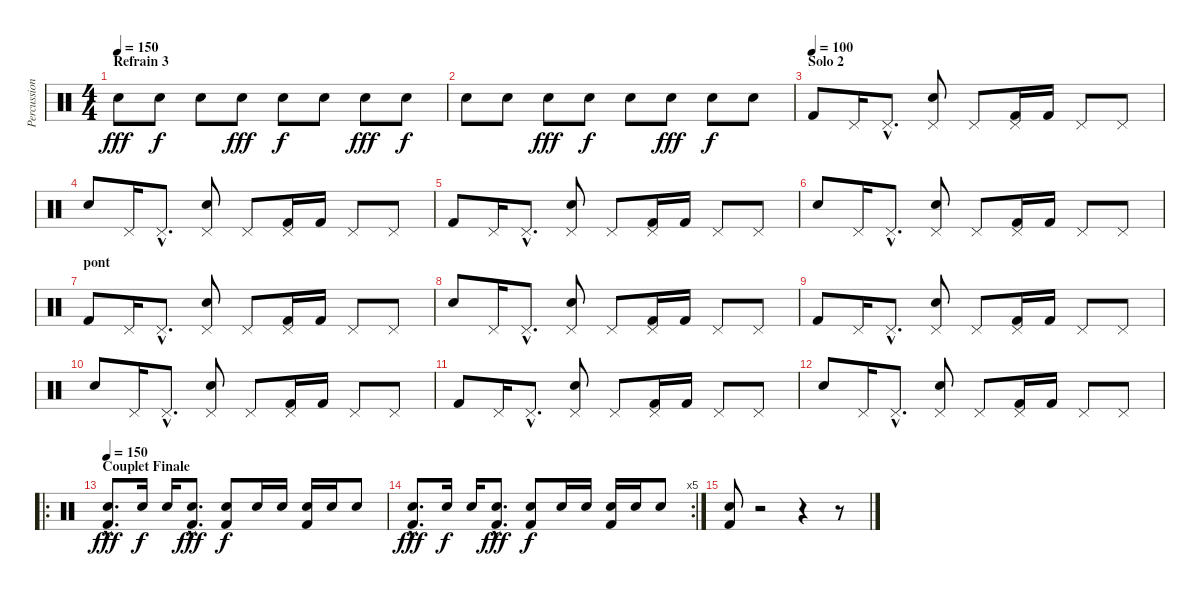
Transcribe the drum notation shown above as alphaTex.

\track ("Percussions" "Percussion") {instrument percussion}
\staff {score}
\articulation defaults
\ts (4 4)
\section ("" "Refrain 3")
\tempo 150
\clef neutral
\ks c "Electric Snare (hit)".8{dy fff} "Electric Snare (hit)".8{dy f} "Electric Snare (hit)".8 "Electric Snare (hit)".8{dy fff} "Electric Snare (hit)".8{dy f} "Electric Snare (hit)".8 "Electric Snare (hit)".8{dy fff} "Electric Snare (hit)".8{dy f}
|
"Electric Snare (hit)".8 "Electric Snare (hit)".8 "Electric Snare (hit)".8{dy fff} "Electric Snare (hit)".8{dy f} "Electric Snare (hit)".8 "Electric Snare (hit)".8{dy fff} "Electric Snare (hit)".8{dy f} "Electric Snare (hit)".8 |
\section ("" "Solo 2")
\tempo (100)
"Kick (hit) 2".8 "Pedal Hi-Hat (hit)".16 "Pedal Hi-Hat (hit)"{hac}.8{d} ("Pedal Hi-Hat (hit)" "Electric Snare (hit)").8 "Pedal Hi-Hat (hit)".8 ("Pedal Hi-Hat (hit)" "Kick (hit) 2").16 "Kick (hit) 2".16 "Pedal Hi-Hat (hit)".8 "Pedal Hi-Hat (hit)".8 |
"Electric Snare (hit)".8 "Pedal Hi-Hat (hit)".16 "Pedal Hi-Hat (hit)"{hac}.8{d} ("Pedal Hi-Hat (hit)" "Electric Snare (hit)").8 "Pedal Hi-Hat (hit)".8 ("Pedal Hi-Hat (hit)" "Kick (hit) 2").16 "Kick (hit) 2".16 "Pedal Hi-Hat (hit)".8 "Pedal Hi-Hat (hit)".8 |
"Kick (hit) 2".8 "Pedal Hi-Hat (hit)".16 "Pedal Hi-Hat (hit)"{hac}.8{d} ("Pedal Hi-Hat (hit)" "Electric Snare (hit)").8 "Pedal Hi-Hat (hit)".8 ("Pedal Hi-Hat (hit)" "Kick (hit) 2").16 "Kick (hit) 2".16 "Pedal Hi-Hat (hit)".8 "Pedal Hi-Hat (hit)".8 |
"Electric Snare (hit)".8 "Pedal Hi-Hat (hit)".16 "Pedal Hi-Hat (hit)"{hac}.8{d} ("Pedal Hi-Hat (hit)" "Electric Snare (hit)").8 "Pedal Hi-Hat (hit)".8 ("Pedal Hi-Hat (hit)" "Kick (hit) 2").16 "Kick (hit) 2".16 "Pedal Hi-Hat (hit)".8 "Pedal Hi-Hat (hit)".8 |
\section ("" "pont")
"Kick (hit) 2".8 "Pedal Hi-Hat (hit)".16 "Pedal Hi-Hat (hit)"{hac}.8{d} ("Pedal Hi-Hat (hit)" "Electric Snare (hit)").8 "Pedal Hi-Hat (hit)".8 ("Pedal Hi-Hat (hit)" "Kick (hit) 2").16 "Kick (hit) 2".16 "Pedal Hi-Hat (hit)".8 "Pedal Hi-Hat (hit)".8 |
"Electric Snare (hit)".8 "Pedal Hi-Hat (hit)".16 "Pedal Hi-Hat (hit)"{hac}.8{d} ("Pedal Hi-Hat (hit)" "Electric Snare (hit)").8 "Pedal Hi-Hat (hit)".8 ("Pedal Hi-Hat (hit)" "Kick (hit) 2").16 "Kick (hit) 2".16 "Pedal Hi-Hat (hit)".8 "Pedal Hi-Hat (hit)".8 |
"Kick (hit) 2".8 "Pedal Hi-Hat (hit)".16 "Pedal Hi-Hat (hit)"{hac}.8{d} ("Pedal Hi-Hat (hit)" "Electric Snare (hit)").8 "Pedal Hi-Hat (hit)".8 ("Pedal Hi-Hat (hit)" "Kick (hit) 2").16 "Kick (hit) 2".16 "Pedal Hi-Hat (hit)".8 "Pedal Hi-Hat (hit)".8 |
"Electric Snare (hit)".8 "Pedal Hi-Hat (hit)".16 "Pedal Hi-Hat (hit)"{hac}.8{d} ("Pedal Hi-Hat (hit)" "Electric Snare (hit)").8 "Pedal Hi-Hat (hit)".8 ("Pedal Hi-Hat (hit)" "Kick (hit) 2").16 "Kick (hit) 2".16 "Pedal Hi-Hat (hit)".8 "Pedal Hi-Hat (hit)".8 |
"Kick (hit) 2".8 "Pedal Hi-Hat (hit)".16 "Pedal Hi-Hat (hit)"{hac}.8{d} ("Pedal Hi-Hat (hit)" "Electric Snare (hit)").8 "Pedal Hi-Hat (hit)".8 ("Pedal Hi-Hat (hit)" "Kick (hit) 2").16 "Kick (hit) 2".16 "Pedal Hi-Hat (hit)".8 "Pedal Hi-Hat (hit)".8 |
"Electric Snare (hit)".8 "Pedal Hi-Hat (hit)".16 "Pedal Hi-Hat (hit)"{hac}.8{d} ("Pedal Hi-Hat (hit)" "Electric Snare (hit)").8 "Pedal Hi-Hat (hit)".8 ("Pedal Hi-Hat (hit)" "Kick (hit) 2").16 "Kick (hit) 2".16 "Pedal Hi-Hat (hit)".8 "Pedal Hi-Hat (hit)".8 |
\ro
\section ("" "Couplet Finale")
\tempo 150
("Electric Snare (hit)"{hac} "Kick (hit) 2"{hac}).8{d dy fff} "Electric Snare (hit)".16{dy f} "Electric Snare (hit)".16 ("Electric Snare (hit)"{hac} "Kick (hit) 2"{hac}).8{d dy fff} ("Electric Snare (hit)" "Kick (hit) 2").8{dy f} "Electric Snare (hit)".16 "Electric Snare (hit)".16 ("Electric Snare (hit)" "Kick (hit) 2").16 "Electric Snare (hit)".16 "Electric Snare (hit)".8 |
\rc 5
("Electric Snare (hit)"{hac} "Kick (hit) 2"{hac}).8{d dy fff} "Electric Snare (hit)".16{dy f} "Electric Snare (hit)".16 ("Electric Snare (hit)"{hac} "Kick (hit) 2"{hac}).8{d dy fff} ("Electric Snare (hit)" "Kick (hit) 2").8{dy f} "Electric Snare (hit)".16 "Electric Snare (hit)".16 ("Electric Snare (hit)" "Kick (hit) 2").16 "Electric Snare (hit)".16 "Electric Snare (hit)".8 |
("Electric Snare (hit)" "Kick (hit) 2").8 r.2 r.4 r.8
